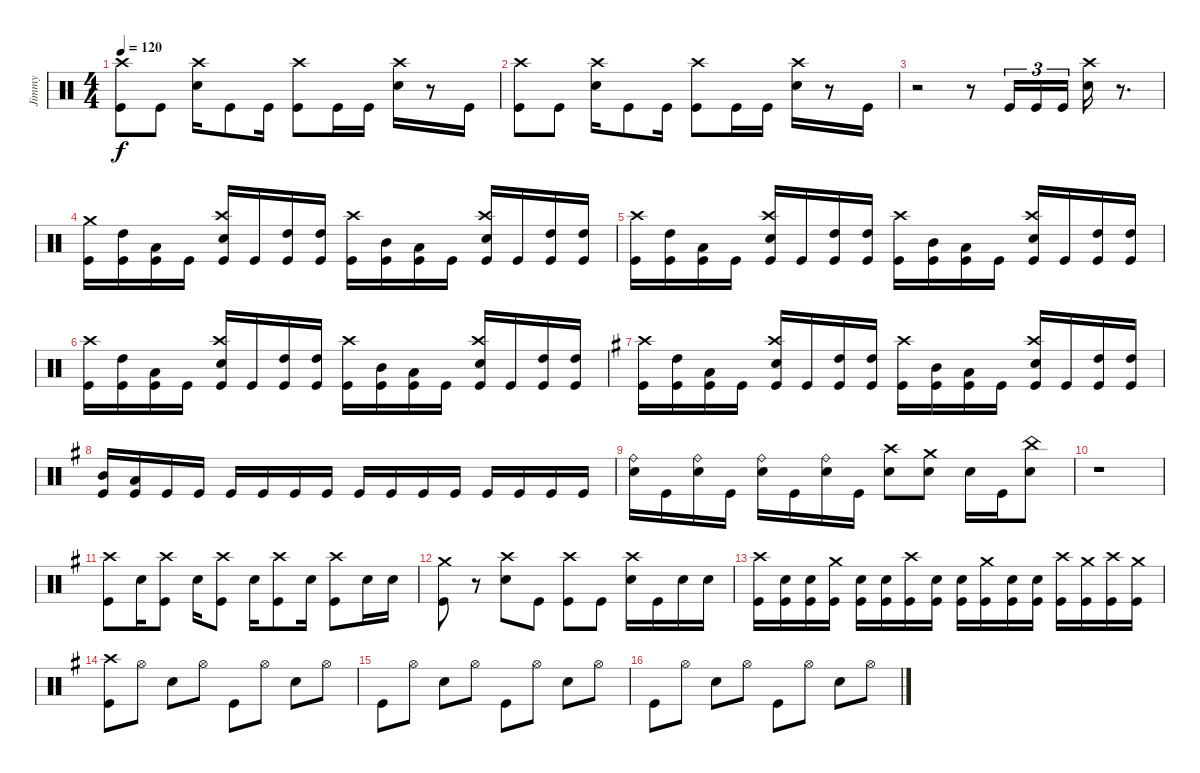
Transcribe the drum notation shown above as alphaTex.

\track ("Jimmy" "Jimmy") {instrument percussion}
\staff {score}
\articulation defaults
\ts (4 4)
\tempo 120
\clef neutral
\ks c
("Kick (hit)" "Crash high (hit)").8{dy f} "Kick (hit)".8 ("Crash high (hit)" "Snare (hit) 2").16 "Kick (hit)".8 "Kick (hit)".16 ("Crash high (hit)" "Kick (hit)").8 "Kick (hit)".16 "Kick (hit)".16 ("Snare (hit) 2" "Crash high (hit)").16 r.8 "Kick (hit)".16 |
("Kick (hit)" "Crash high (hit)").8 "Kick (hit)".8 ("Crash high (hit)" "Snare (hit) 2").16 "Kick (hit)".8 "Kick (hit)".16 ("Crash high (hit)" "Kick (hit)").8 "Kick (hit)".16 "Kick (hit)".16 ("Snare (hit) 2" "Crash high (hit)").16 r.8 "Kick (hit)".16 |
r.2 r.8 "Kick (hit)".16{tu (3 2)} "Kick (hit)".16{tu (3 2)} "Kick (hit)".16{tu (3 2)} ("Crash high (hit)" "Snare (hit) 2").16 r.8{d} |
("Kick (hit)" "Crash medium (hit)").16 ("Kick (hit)" "High Tom (hit)").16 ("Kick (hit)" "Low Tom (hit)").16 "Kick (hit)".16 ("Snare (hit) 2" "Crash high (hit)" "Kick (hit)").16 "Kick (hit)".16 ("High Tom (hit)" "Kick (hit)").16 ("High Tom (hit)" "Kick (hit)").16 ("Crash high (hit)" "Kick (hit)").16 ("Mid Tom (hit)" "Kick (hit)").16 ("Low Tom (hit)" "Kick (hit)").16 "Kick (hit)".16 ("Snare (hit) 2" "Crash high (hit)" "Kick (hit)").16 "Kick (hit)".16 ("High Tom (hit)" "Kick (hit)").16 ("High Tom (hit)" "Kick (hit)").16 |
("Kick (hit)" "Crash high (hit)").16 ("Kick (hit)" "High Tom (hit)").16 ("Kick (hit)" "Low Tom (hit)").16 "Kick (hit)".16 ("Snare (hit) 2" "Crash high (hit)" "Kick (hit)").16 "Kick (hit)".16 ("High Tom (hit)" "Kick (hit)").16 ("High Tom (hit)" "Kick (hit)").16 ("Crash high (hit)" "Kick (hit)").16 ("Mid Tom (hit)" "Kick (hit)").16 ("Low Tom (hit)" "Kick (hit)").16 "Kick (hit)".16 ("Snare (hit) 2" "Crash high (hit)" "Kick (hit)").16 "Kick (hit)".16 ("High Tom (hit)" "Kick (hit)").16 ("High Tom (hit)" "Kick (hit)").16 |
("Kick (hit)" "Crash high (hit)").16 ("Kick (hit)" "High Tom (hit)").16 ("Kick (hit)" "Low Tom (hit)").16 "Kick (hit)".16 ("Snare (hit) 2" "Crash high (hit)" "Kick (hit)").16 "Kick (hit)".16 ("High Tom (hit)" "Kick (hit)").16 ("High Tom (hit)" "Kick (hit)").16 ("Crash high (hit)" "Kick (hit)").16 ("Mid Tom (hit)" "Kick (hit)").16 ("Low Tom (hit)" "Kick (hit)").16 "Kick (hit)".16 ("Snare (hit) 2" "Crash high (hit)" "Kick (hit)").16 "Kick (hit)".16 ("High Tom (hit)" "Kick (hit)").16 ("High Tom (hit)" "Kick (hit)").16 |
\ks eminor
("Kick (hit)" "Crash high (hit)").16 ("Kick (hit)" "High Tom (hit)").16 ("Kick (hit)" "Low Tom (hit)").16 "Kick (hit)".16 ("Snare (hit) 2" "Crash high (hit)" "Kick (hit)").16 "Kick (hit)".16 ("High Tom (hit)" "Kick (hit)").16 ("High Tom (hit)" "Kick (hit)").16 ("Crash high (hit)" "Kick (hit)").16 ("Mid Tom (hit)" "Kick (hit)").16 ("Low Tom (hit)" "Kick (hit)").16 "Kick (hit)".16 ("Snare (hit) 2" "Crash high (hit)" "Kick (hit)").16 "Kick (hit)".16 ("High Tom (hit)" "Kick (hit)").16 ("High Tom (hit)" "Kick (hit)").16 |
("Mid Tom (hit)" "Kick (hit)").16 ("Low Tom (hit)" "Kick (hit)").16 "Kick (hit)".16 "Kick (hit)".16 "Kick (hit)".16 "Kick (hit)".16 "Kick (hit)".16 "Kick (hit)".16 "Kick (hit)".16 "Kick (hit)".16 "Kick (hit)".16 "Kick (hit)".16 "Kick (hit)".16 "Kick (hit)".16 "Kick (hit)".16 "Kick (hit)".16 |
("Ride (bell)" "Snare (hit) 2").16 "Kick (hit)".16 ("Snare (hit) 2" "Ride (bell)").16 "Kick (hit)".16 ("Ride (bell)" "Snare (hit) 2").16 "Kick (hit)".16 ("Snare (hit) 2" "Ride (bell)").16 "Kick (hit)".16 ("Snare (hit) 2" "Crash high (hit)").8 ("Crash medium (hit)" "Snare (hit) 2").8 "Snare (hit) 2".16 "Kick (hit)".16 ("China (hit)" "Snare (hit) 2").8 |
r.1 |
("Kick (hit)" "Crash high (hit)").8 "Snare (hit) 2".16 ("Kick (hit)" "Crash high (hit)").8 "Snare (hit) 2".16 ("Kick (hit)" "Crash high (hit)").8 "Snare (hit) 2".16 ("Kick (hit)" "Crash high (hit)").8 "Snare (hit) 2".16 ("Kick (hit)" "Crash high (hit)").8 "Snare (hit) 2".16 "Snare (hit) 2".16 |
("Crash medium (hit)" "Kick (hit)").8 r.8 ("Crash high (hit)" "Snare (hit) 2").8 "Kick (hit)".8 ("Kick (hit)" "Crash high (hit)").8 "Kick (hit)".8 ("Crash high (hit)" "Snare (hit) 2").16 "Kick (hit)".16 "Snare (hit) 2".16 "Snare (hit) 2".16 |
("Kick (hit)" "Crash high (hit)").16 ("Kick (hit)" "Snare (hit) 2").16 ("Snare (hit) 2" "Kick (hit)").16 ("Crash medium (hit)" "Kick (hit)").16 ("Snare (hit) 2" "Kick (hit)").16 ("Snare (hit) 2" "Kick (hit)").16 ("Crash high (hit)" "Kick (hit)").16 ("Snare (hit) 2" "Kick (hit)").16 ("Snare (hit) 2" "Kick (hit)").16 ("Crash medium (hit)" "Kick (hit)").16 ("Snare (hit) 2" "Kick (hit)").16 ("Snare (hit) 2" "Kick (hit)").16 ("Kick (hit)" "Crash high (hit)").16 ("Kick (hit)" "Crash medium (hit)").16 ("Kick (hit)" "Crash high (hit)").16 ("Kick (hit)" "Crash medium (hit)").16 |
("Kick (hit)" "Crash high (hit)").8 "Hi-Hat (open)".8 "Snare (hit) 2".8 "Hi-Hat (open)".8 "Kick (hit)".8 "Hi-Hat (open)".8 "Snare (hit) 2".8 "Hi-Hat (open)".8 |
"Kick (hit)".8 "Hi-Hat (open)".8 "Snare (hit) 2".8 "Hi-Hat (open)".8 "Kick (hit)".8 "Hi-Hat (open)".8 "Snare (hit) 2".8 "Hi-Hat (open)".8 |
"Kick (hit)".8 "Hi-Hat (open)".8 "Snare (hit) 2".8 "Hi-Hat (open)".8 "Kick (hit)".8 "Hi-Hat (open)".8 "Snare (hit) 2".8 "Hi-Hat (open)".8
